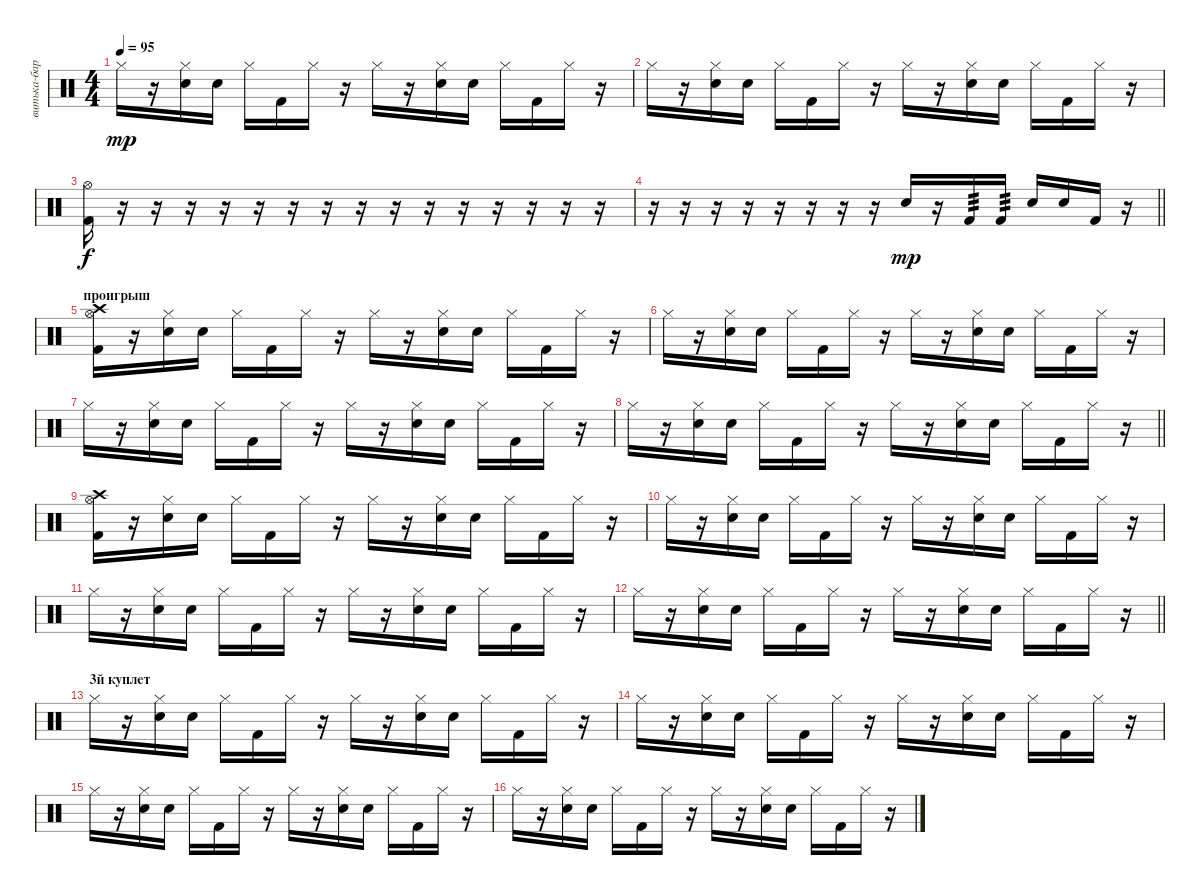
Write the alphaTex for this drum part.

\track ("витька-барабанит" "витька-бар") {instrument percussion}
\staff {score}
\articulation defaults
\ts (4 4)
\tempo 95
\clef neutral
\ks c "Hi-Hat (closed)".16{dy mp}
r.16 ("Snare (hit) 2" "Hi-Hat (closed)").16 "Snare (hit) 2".16 "Hi-Hat (closed)".16 "Kick (hit) 2".16 "Hi-Hat (closed)".16 r.16 "Hi-Hat (closed)".16 r.16 ("Snare (hit) 2" "Hi-Hat (closed)").16 "Snare (hit) 2".16 "Hi-Hat (closed)".16 "Kick (hit) 2".16 "Hi-Hat (closed)".16 r.16 |
"Hi-Hat (closed)".16 r.16 ("Snare (hit) 2" "Hi-Hat (closed)").16 "Snare (hit) 2".16 "Hi-Hat (closed)".16 "Kick (hit) 2".16 "Hi-Hat (closed)".16 r.16 "Hi-Hat (closed)".16 r.16 ("Snare (hit) 2" "Hi-Hat (closed)").16 "Snare (hit) 2".16 "Hi-Hat (closed)".16 "Kick (hit) 2".16 "Hi-Hat (closed)".16 r.16 |
("Kick (hit) 2" "Hi-Hat (open)").16{dy f} r.16 r.16 r.16 r.16 r.16 r.16 r.16 r.16 r.16 r.16 r.16 r.16 r.16 r.16 r.16 |
\barLineRight lightlight
r.16 r.16 r.16 r.16 r.16 r.16 r.16 r.16 "Snare (hit) 2".16{dy mp} r.16 "Kick (hit) 2".16{tp 3} "Kick (hit) 2".16{tp 3} "Snare (hit) 2".16 "Snare (hit) 2".16 "Kick (hit) 2".16 r.16 |
\section ("" "проигрыш")
("Kick (hit) 2" "Crash high (hit)" "Hi-Hat (open)").16 r.16 ("Snare (hit) 2" "Hi-Hat (closed)").16 "Snare (hit) 2".16 "Hi-Hat (closed)".16 "Kick (hit) 2".16 "Hi-Hat (closed)".16 r.16 "Hi-Hat (closed)".16 r.16 ("Snare (hit) 2" "Hi-Hat (closed)").16 "Snare (hit) 2".16 "Hi-Hat (closed)".16 "Kick (hit) 2".16 "Hi-Hat (closed)".16 r.16 |
"Hi-Hat (closed)".16 r.16 ("Snare (hit) 2" "Hi-Hat (closed)").16 "Snare (hit) 2".16 "Hi-Hat (closed)".16 "Kick (hit) 2".16 "Hi-Hat (closed)".16 r.16 "Hi-Hat (closed)".16 r.16 ("Snare (hit) 2" "Hi-Hat (closed)").16 "Snare (hit) 2".16 "Hi-Hat (closed)".16 "Kick (hit) 2".16 "Hi-Hat (closed)".16 r.16 |
"Hi-Hat (closed)".16 r.16 ("Snare (hit) 2" "Hi-Hat (closed)").16 "Snare (hit) 2".16 "Hi-Hat (closed)".16 "Kick (hit) 2".16 "Hi-Hat (closed)".16 r.16 "Hi-Hat (closed)".16 r.16 ("Snare (hit) 2" "Hi-Hat (closed)").16 "Snare (hit) 2".16 "Hi-Hat (closed)".16 "Kick (hit) 2".16 "Hi-Hat (closed)".16 r.16 |
\barLineRight lightlight "Hi-Hat (closed)".16
r.16 ("Snare (hit) 2" "Hi-Hat (closed)").16 "Snare (hit) 2".16 "Hi-Hat (closed)".16 "Kick (hit) 2".16 "Hi-Hat (closed)".16 r.16 "Hi-Hat (closed)".16 r.16 ("Snare (hit) 2" "Hi-Hat (closed)").16 "Snare (hit) 2".16 "Hi-Hat (closed)".16 "Kick (hit) 2".16 "Hi-Hat (closed)".16 r.16 |
("Kick (hit) 2" "Crash high (hit)" "Hi-Hat (open)").16 r.16 ("Snare (hit) 2" "Hi-Hat (closed)").16 "Snare (hit) 2".16 "Hi-Hat (closed)".16 "Kick (hit) 2".16 "Hi-Hat (closed)".16 r.16 "Hi-Hat (closed)".16 r.16 ("Snare (hit) 2" "Hi-Hat (closed)").16 "Snare (hit) 2".16 "Hi-Hat (closed)".16 "Kick (hit) 2".16 "Hi-Hat (closed)".16 r.16 |
"Hi-Hat (closed)".16 r.16 ("Snare (hit) 2" "Hi-Hat (closed)").16 "Snare (hit) 2".16 "Hi-Hat (closed)".16 "Kick (hit) 2".16 "Hi-Hat (closed)".16 r.16 "Hi-Hat (closed)".16 r.16 ("Snare (hit) 2" "Hi-Hat (closed)").16 "Snare (hit) 2".16 "Hi-Hat (closed)".16 "Kick (hit) 2".16 "Hi-Hat (closed)".16 r.16 |
"Hi-Hat (closed)".16 r.16 ("Snare (hit) 2" "Hi-Hat (closed)").16 "Snare (hit) 2".16 "Hi-Hat (closed)".16 "Kick (hit) 2".16 "Hi-Hat (closed)".16 r.16 "Hi-Hat (closed)".16 r.16 ("Snare (hit) 2" "Hi-Hat (closed)").16 "Snare (hit) 2".16 "Hi-Hat (closed)".16 "Kick (hit) 2".16 "Hi-Hat (closed)".16 r.16 |
\barLineRight lightlight "Hi-Hat (closed)".16
r.16 ("Snare (hit) 2" "Hi-Hat (closed)").16 "Snare (hit) 2".16 "Hi-Hat (closed)".16 "Kick (hit) 2".16 "Hi-Hat (closed)".16 r.16 "Hi-Hat (closed)".16 r.16 ("Snare (hit) 2" "Hi-Hat (closed)").16 "Snare (hit) 2".16 "Hi-Hat (closed)".16 "Kick (hit) 2".16 "Hi-Hat (closed)".16 r.16 |
\section ("" "3й куплет")
"Hi-Hat (closed)".16 r.16 ("Snare (hit) 2" "Hi-Hat (closed)").16 "Snare (hit) 2".16 "Hi-Hat (closed)".16 "Kick (hit) 2".16 "Hi-Hat (closed)".16 r.16 "Hi-Hat (closed)".16 r.16 ("Snare (hit) 2" "Hi-Hat (closed)").16 "Snare (hit) 2".16 "Hi-Hat (closed)".16 "Kick (hit) 2".16 "Hi-Hat (closed)".16 r.16 |
"Hi-Hat (closed)".16 r.16 ("Snare (hit) 2" "Hi-Hat (closed)").16 "Snare (hit) 2".16 "Hi-Hat (closed)".16 "Kick (hit) 2".16 "Hi-Hat (closed)".16 r.16 "Hi-Hat (closed)".16 r.16 ("Snare (hit) 2" "Hi-Hat (closed)").16 "Snare (hit) 2".16 "Hi-Hat (closed)".16 "Kick (hit) 2".16 "Hi-Hat (closed)".16 r.16 |
"Hi-Hat (closed)".16 r.16 ("Snare (hit) 2" "Hi-Hat (closed)").16 "Snare (hit) 2".16 "Hi-Hat (closed)".16 "Kick (hit) 2".16 "Hi-Hat (closed)".16 r.16 "Hi-Hat (closed)".16 r.16 ("Snare (hit) 2" "Hi-Hat (closed)").16 "Snare (hit) 2".16 "Hi-Hat (closed)".16 "Kick (hit) 2".16 "Hi-Hat (closed)".16 r.16 |
"Hi-Hat (closed)".16 r.16 ("Snare (hit) 2" "Hi-Hat (closed)").16 "Snare (hit) 2".16 "Hi-Hat (closed)".16 "Kick (hit) 2".16 "Hi-Hat (closed)".16 r.16 "Hi-Hat (closed)".16 r.16 ("Snare (hit) 2" "Hi-Hat (closed)").16 "Snare (hit) 2".16 "Hi-Hat (closed)".16 "Kick (hit) 2".16 "Hi-Hat (closed)".16 r.16
